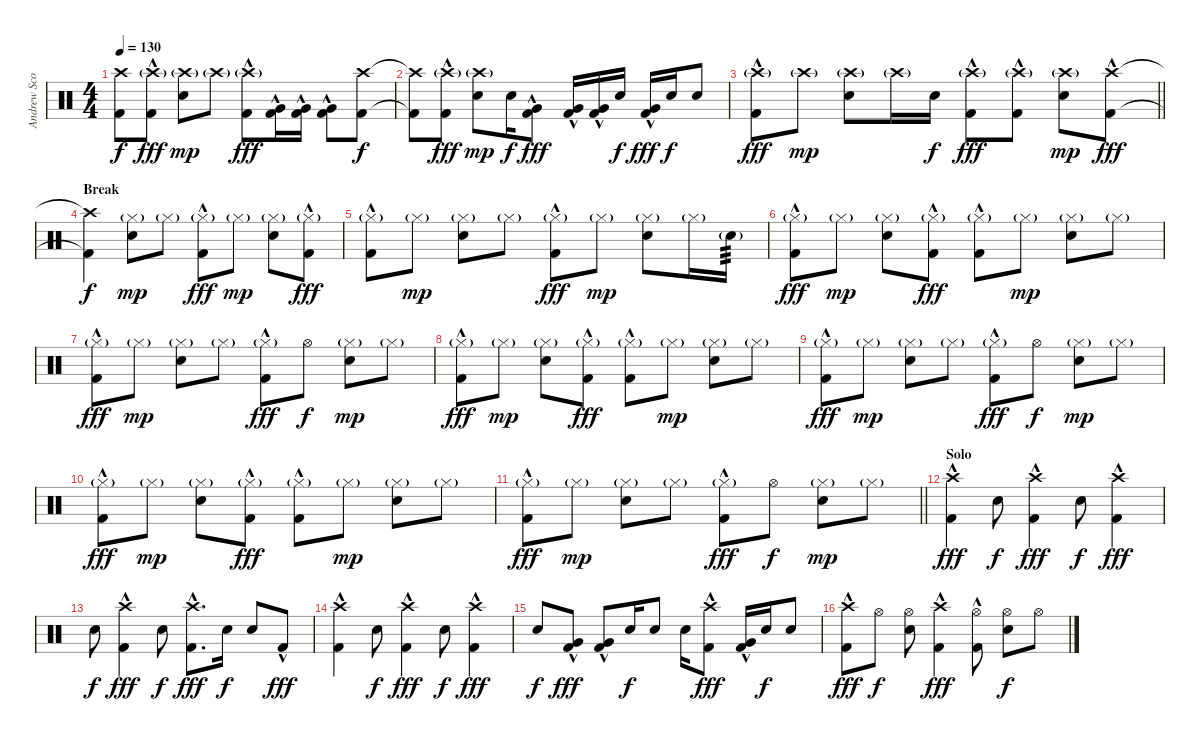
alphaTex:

\track ("Andrew Scott" "Andrew Sco") {instrument percussion}
\staff {score}
\articulation defaults
\ts (4 4)
\tempo 130
\clef neutral
\ks c
("Crash high (hit)"{t} "Kick (hit) 2"{t}).8{dy f} ("Crash high (hit)"{g} "Kick (hit) 2"{hac}).8{dy fff} ("Crash high (hit)"{g} "Snare (hit) 2").8{dy mp} "Crash high (hit)"{g}.8 ("Crash high (hit)"{g} "Kick (hit) 2"{hac}).8{dy fff} ("Very Low Tom (hit)"{hac} "Kick (hit) 2"{hac}).16 ("Very Low Tom (hit)"{hac} "Kick (hit) 2"{hac}).16 ("Very Low Tom (hit)"{hac} "Kick (hit) 2"{hac}).8 ("Crash high (hit)" "Kick (hit) 2").8{dy f} |
("Crash high (hit)"{t} "Kick (hit) 2"{t}).8 ("Crash high (hit)"{g} "Kick (hit) 2"{hac}).8{dy fff} ("Crash high (hit)"{g} "Snare (hit) 2").8{dy mp} "Snare (hit) 2".16{dy f} ("Very Low Tom (hit)"{hac} "Kick (hit) 2"{hac}).8{dy fff} ("Very Low Tom (hit)"{hac} "Kick (hit) 2"{hac}).16 ("Very Low Tom (hit)"{hac} "Kick (hit) 2"{hac}).16 "Snare (hit) 2".16{dy f} ("Very Low Tom (hit)"{hac} "Kick (hit) 2"{hac}).16{dy fff} "Snare (hit) 2".16{dy f} "Snare (hit) 2".8 |
\barLineRight lightlight
("Crash high (hit)"{g} "Kick (hit) 2"{hac}).8{dy fff} "Crash high (hit)"{g}.8{dy mp} ("Crash high (hit)"{g} "Snare (hit) 2").8 "Crash high (hit)"{g}.16 "Snare (hit) 2".16{dy f} ("Crash high (hit)"{g} "Kick (hit) 2"{hac}).8{dy fff} ("Crash high (hit)"{g} "Kick (hit) 2"{hac}).8 ("Crash high (hit)"{g} "Snare (hit) 2").8{dy mp} ("Crash high (hit)" "Kick (hit) 2"{hac}).8{dy fff} |
\section ("" "Break")
("Crash high (hit)"{t} "Kick (hit) 2"{t}).4{dy f} ("Hi-Hat (closed)"{g} "Snare (hit) 2").8{dy mp} "Hi-Hat (closed)"{g}.8 ("Hi-Hat (closed)"{g} "Kick (hit) 2"{hac}).8{dy fff} "Hi-Hat (closed)"{g}.8{dy mp} ("Hi-Hat (closed)"{g} "Snare (hit) 2").8 ("Hi-Hat (closed)"{g} "Kick (hit) 2"{hac}).8{dy fff} |
("Hi-Hat (closed)"{g} "Kick (hit) 2"{hac}).8 "Hi-Hat (closed)"{g}.8{dy mp} ("Hi-Hat (closed)"{g} "Snare (hit) 2").8 "Hi-Hat (closed)"{g}.8 ("Hi-Hat (closed)"{g} "Kick (hit) 2"{hac}).8{dy fff} "Hi-Hat (closed)"{g}.8{dy mp} ("Hi-Hat (closed)"{g} "Snare (hit) 2").8 "Hi-Hat (closed)"{g}.16 "Snare (hit) 2"{g}.16{tp 3} |
("Hi-Hat (closed)"{g} "Kick (hit) 2"{hac}).8{dy fff} "Hi-Hat (closed)"{g}.8{dy mp} ("Hi-Hat (closed)"{g} "Snare (hit) 2").8 ("Hi-Hat (closed)"{g} "Kick (hit) 2"{hac}).8{dy fff} ("Hi-Hat (closed)"{g} "Kick (hit) 2"{hac}).8 "Hi-Hat (closed)"{g}.8{dy mp} ("Hi-Hat (closed)"{g} "Snare (hit) 2").8 "Hi-Hat (closed)"{g}.8 |
("Hi-Hat (closed)"{g} "Kick (hit) 2"{hac}).8{dy fff} "Hi-Hat (closed)"{g}.8{dy mp} ("Hi-Hat (closed)"{g} "Snare (hit) 2").8 "Hi-Hat (closed)"{g}.8 ("Hi-Hat (closed)"{g} "Kick (hit) 2"{hac}).8{dy fff} "Hi-Hat (open)".8{dy f} ("Hi-Hat (closed)"{g} "Snare (hit) 2").8{dy mp} "Hi-Hat (closed)"{g}.8 |
("Hi-Hat (closed)"{g} "Kick (hit) 2"{hac}).8{dy fff} "Hi-Hat (closed)"{g}.8{dy mp} ("Hi-Hat (closed)"{g} "Snare (hit) 2").8 ("Hi-Hat (closed)"{g} "Kick (hit) 2"{hac}).8{dy fff} ("Hi-Hat (closed)"{g} "Kick (hit) 2"{hac}).8 "Hi-Hat (closed)"{g}.8{dy mp} ("Hi-Hat (closed)"{g} "Snare (hit) 2").8 "Hi-Hat (closed)"{g}.8 |
("Hi-Hat (closed)"{g} "Kick (hit) 2"{hac}).8{dy fff} "Hi-Hat (closed)"{g}.8{dy mp} ("Hi-Hat (closed)"{g} "Snare (hit) 2").8 "Hi-Hat (closed)"{g}.8 ("Hi-Hat (closed)"{g} "Kick (hit) 2"{hac}).8{dy fff} "Hi-Hat (open)".8{dy f} ("Hi-Hat (closed)"{g} "Snare (hit) 2").8{dy mp} "Hi-Hat (closed)"{g}.8 |
("Hi-Hat (closed)"{g} "Kick (hit) 2"{hac}).8{dy fff} "Hi-Hat (closed)"{g}.8{dy mp} ("Hi-Hat (closed)"{g} "Snare (hit) 2").8 ("Hi-Hat (closed)"{g} "Kick (hit) 2"{hac}).8{dy fff} ("Hi-Hat (closed)"{g} "Kick (hit) 2"{hac}).8 "Hi-Hat (closed)"{g}.8{dy mp} ("Hi-Hat (closed)"{g} "Snare (hit) 2").8 "Hi-Hat (closed)"{g}.8 |
\barLineRight lightlight
("Hi-Hat (closed)"{g} "Kick (hit) 2"{hac}).8{dy fff} "Hi-Hat (closed)"{g}.8{dy mp} ("Hi-Hat (closed)"{g} "Snare (hit) 2").8 "Hi-Hat (closed)"{g}.8 ("Hi-Hat (closed)"{g} "Kick (hit) 2"{hac}).8{dy fff} "Hi-Hat (open)".8{dy f} ("Hi-Hat (closed)"{g} "Snare (hit) 2").8{dy mp} "Hi-Hat (closed)"{g}.8 |
\section ("" "Solo")
("Crash high (hit)" "Kick (hit) 2"{hac}).4{dy fff} "Snare (hit) 2".8{dy f} ("Crash high (hit)" "Kick (hit) 2"{hac}).4{dy fff} "Snare (hit) 2".8{dy f} ("Crash high (hit)" "Kick (hit) 2"{hac}).4{dy fff} |
"Snare (hit) 2".8{dy f} ("Crash high (hit)" "Kick (hit) 2"{hac}).4{dy fff} "Snare (hit) 2".8{dy f} ("Crash high (hit)" "Kick (hit) 2"{hac}).8{d dy fff} "Snare (hit) 2".16{dy f} "Snare (hit) 2".8 "Kick (hit) 2"{hac}.8{dy fff} |
("Crash high (hit)" "Kick (hit) 2"{hac}).4 "Snare (hit) 2".8{dy f} ("Crash high (hit)" "Kick (hit) 2"{hac}).4{dy fff} "Snare (hit) 2".8{dy f} ("Crash high (hit)" "Kick (hit) 2"{hac}).4{dy fff} |
"Snare (hit) 2".8{dy f} ("Very Low Tom (hit)"{hac} "Kick (hit) 2"{hac}).8{dy fff} ("Very Low Tom (hit)"{hac} "Kick (hit) 2"{hac}).8 "Snare (hit) 2".16{dy f} "Snare (hit) 2".8 "Snare (hit) 2".16 ("Crash high (hit)" "Kick (hit) 2"{hac}).8{dy fff} ("Very Low Tom (hit)"{hac} "Kick (hit) 2"{hac}).16 "Snare (hit) 2".16{dy f} "Snare (hit) 2".8 |
("Crash high (hit)" "Kick (hit) 2"{hac}).8{dy fff} "Hi-Hat (open)".8{dy f} ("Hi-Hat (open)" "Snare (hit) 2").8 ("Crash high (hit)" "Kick (hit) 2"{hac}).4{dy fff} ("Hi-Hat (open)" "Kick (hit) 2"{hac}).8 ("Hi-Hat (open)" "Snare (hit) 2").8{dy f} "Hi-Hat (open)".8
